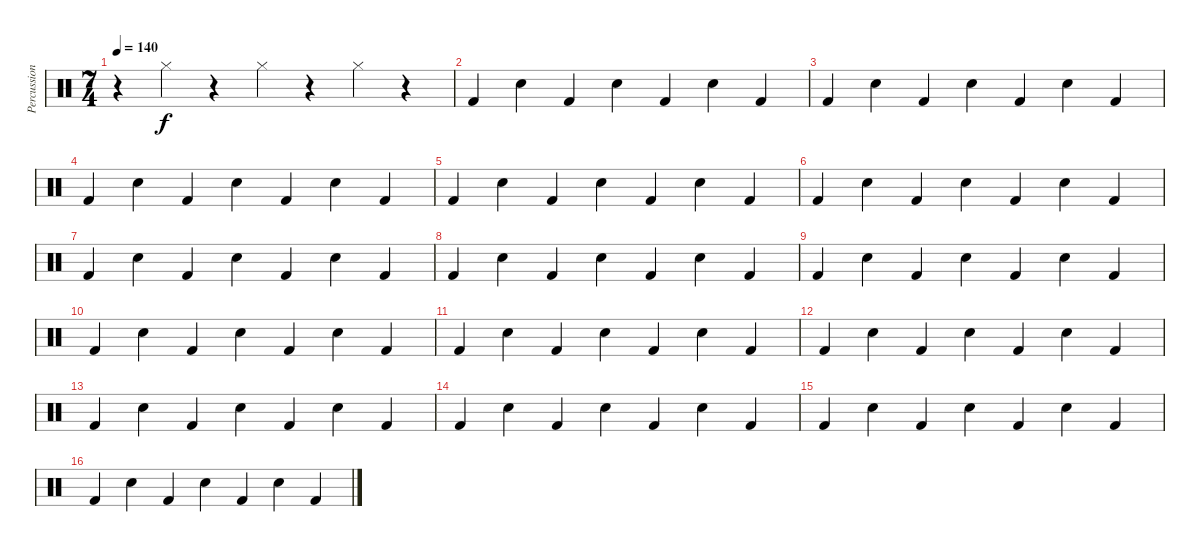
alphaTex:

\track ("Percussion" "Percussion") {instrument percussion}
\staff {score}
\articulation defaults
\ts (7 4)
\tempo 140
\clef neutral
\ks c
r.4{dy f} "Hi-Hat (closed)".4 r.4 "Hi-Hat (closed)".4 r.4 "Hi-Hat (closed)".4 r.4 |
"Kick (hit) 2".4 "Snare (hit) 2".4 "Kick (hit) 2".4 "Snare (hit) 2".4 "Kick (hit) 2".4 "Snare (hit) 2".4 "Kick (hit) 2".4 |
"Kick (hit) 2".4 "Snare (hit) 2".4 "Kick (hit) 2".4 "Snare (hit) 2".4 "Kick (hit) 2".4 "Snare (hit) 2".4 "Kick (hit) 2".4 |
"Kick (hit) 2".4 "Snare (hit) 2".4 "Kick (hit) 2".4 "Snare (hit) 2".4 "Kick (hit) 2".4 "Snare (hit) 2".4 "Kick (hit) 2".4 |
"Kick (hit) 2".4 "Snare (hit) 2".4 "Kick (hit) 2".4 "Snare (hit) 2".4 "Kick (hit) 2".4 "Snare (hit) 2".4 "Kick (hit) 2".4 |
"Kick (hit) 2".4 "Snare (hit) 2".4 "Kick (hit) 2".4 "Snare (hit) 2".4 "Kick (hit) 2".4 "Snare (hit) 2".4 "Kick (hit) 2".4 |
"Kick (hit) 2".4 "Snare (hit) 2".4 "Kick (hit) 2".4 "Snare (hit) 2".4 "Kick (hit) 2".4 "Snare (hit) 2".4 "Kick (hit) 2".4 |
"Kick (hit) 2".4 "Snare (hit) 2".4 "Kick (hit) 2".4 "Snare (hit) 2".4 "Kick (hit) 2".4 "Snare (hit) 2".4 "Kick (hit) 2".4 |
"Kick (hit) 2".4 "Snare (hit) 2".4 "Kick (hit) 2".4 "Snare (hit) 2".4 "Kick (hit) 2".4 "Snare (hit) 2".4 "Kick (hit) 2".4 |
"Kick (hit) 2".4 "Snare (hit) 2".4 "Kick (hit) 2".4 "Snare (hit) 2".4 "Kick (hit) 2".4 "Snare (hit) 2".4 "Kick (hit) 2".4 |
"Kick (hit) 2".4 "Snare (hit) 2".4 "Kick (hit) 2".4 "Snare (hit) 2".4 "Kick (hit) 2".4 "Snare (hit) 2".4 "Kick (hit) 2".4 |
"Kick (hit) 2".4 "Snare (hit) 2".4 "Kick (hit) 2".4 "Snare (hit) 2".4 "Kick (hit) 2".4 "Snare (hit) 2".4 "Kick (hit) 2".4 |
"Kick (hit) 2".4 "Snare (hit) 2".4 "Kick (hit) 2".4 "Snare (hit) 2".4 "Kick (hit) 2".4 "Snare (hit) 2".4 "Kick (hit) 2".4 |
"Kick (hit) 2".4 "Snare (hit) 2".4 "Kick (hit) 2".4 "Snare (hit) 2".4 "Kick (hit) 2".4 "Snare (hit) 2".4 "Kick (hit) 2".4 |
"Kick (hit) 2".4 "Snare (hit) 2".4 "Kick (hit) 2".4 "Snare (hit) 2".4 "Kick (hit) 2".4 "Snare (hit) 2".4 "Kick (hit) 2".4 |
"Kick (hit) 2".4 "Snare (hit) 2".4 "Kick (hit) 2".4 "Snare (hit) 2".4 "Kick (hit) 2".4 "Snare (hit) 2".4 "Kick (hit) 2".4
